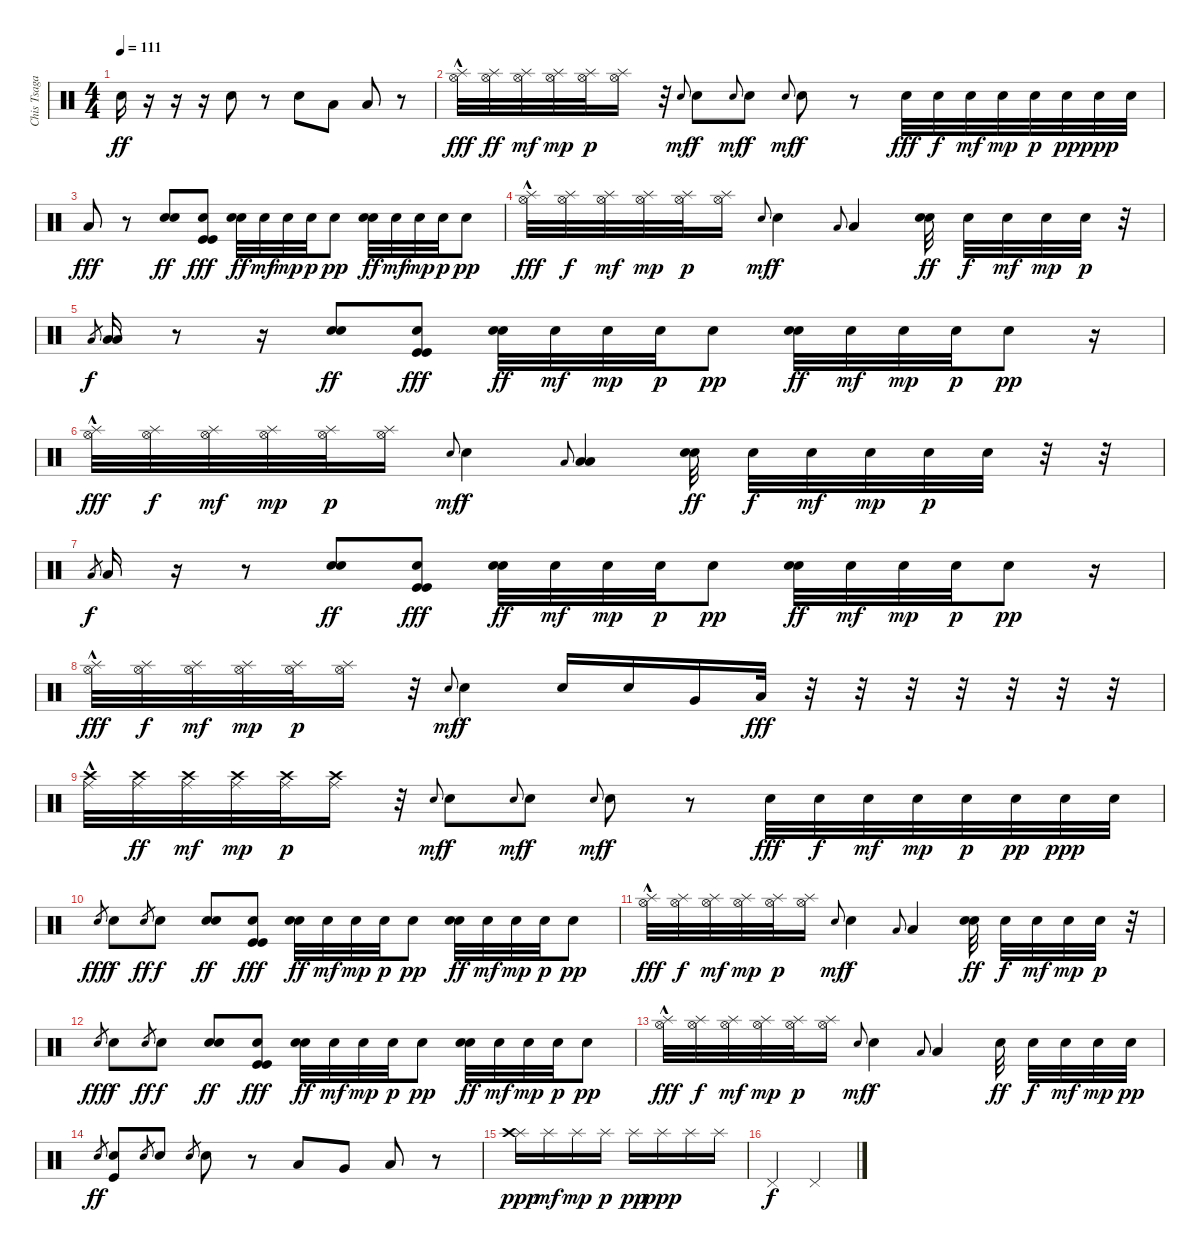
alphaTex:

\track ("Chis Tsagakis" "Chis Tsaga") {instrument percussion}
\staff {score}
\articulation defaults
\ts (4 4)
\tempo 111
\clef neutral
\ks c "Snare (hit) 2".16{dy ff}
r.16 r.16 r.16 "Snare (hit) 2".8 r.8 "Snare (hit) 2".8 "Low Tom (hit)".8 "Low Floor Tom (hit)".8 r.8 |
("Splash (hit)"{hac} "Hi-Hat (open)").32{dy fff} ("Splash (hit)" "Hi-Hat (open)").32{dy ff} ("Splash (hit)" "Hi-Hat (open)").32{dy mf} ("Splash (hit)" "Hi-Hat (open)").32{dy mp} ("Splash (hit)" "Hi-Hat (open)").32{dy p} ("Splash (hit)" "Hi-Hat (open)").16 r.32 "Snare (hit) 2".8{gr onbeat dy mf} "Snare (hit) 2".8{dy f} "Snare (hit) 2".8{gr onbeat dy mf} "Snare (hit) 2".8{dy f} "Snare (hit) 2".8{gr onbeat dy mf} "Snare (hit) 2".8{dy f} r.8 "Electric Snare (hit)".32{dy fff} "Electric Snare (hit)".32{dy f} "Electric Snare (hit)".32{dy mf} "Electric Snare (hit)".32{dy mp} "Electric Snare (hit)".32{dy p} "Electric Snare (hit)".32{dy pp} "Electric Snare (hit)".32{dy ppp} "Electric Snare (hit)".32 |
"Low Tom (hit)".8{dy fff} r.8 ("Snare (hit) 2" "Snare (hit) 2").8{dy ff} ("Snare (hit) 2" "Kick (hit)" "Kick (hit)").8{dy fff} ("Snare (hit) 2" "Snare (hit) 2").32{dy ff} "Snare (hit) 2".32{dy mf} "Snare (hit) 2".32{dy mp} "Snare (hit) 2".32{dy p} "Snare (hit) 2".8{dy pp} ("Snare (hit) 2" "Snare (hit) 2").32{dy ff} "Snare (hit) 2".32{dy mf} "Snare (hit) 2".32{dy mp} "Snare (hit) 2".32{dy p} "Snare (hit) 2".8{dy pp} |
("Splash (hit)"{hac} "Hi-Hat (open)").32{dy fff} ("Splash (hit)" "Hi-Hat (open)").32{dy f} ("Splash (hit)" "Hi-Hat (open)").32{dy mf} ("Splash (hit)" "Hi-Hat (open)").32{dy mp} ("Splash (hit)" "Hi-Hat (open)").32{dy p} ("Splash (hit)" "Hi-Hat (open)").16 "Snare (hit) 2".8{gr onbeat dy mf} "Snare (hit) 2".4{dy f} "Low Tom (hit)".8{gr onbeat} "Low Tom (hit)".4 ("Electric Snare (hit)" "Electric Snare (hit)").32{dy ff} "Electric Snare (hit)".32{dy f} "Electric Snare (hit)".32{dy mf} "Electric Snare (hit)".32{dy mp} "Electric Snare (hit)".32{dy p} r.32 |
"Low Tom (hit)".8{gr dy f} ("Low Tom (hit)" "Low Tom (hit)").16 r.8 r.16 ("Snare (hit) 2" "Snare (hit) 2").8{dy ff} ("Snare (hit) 2" "Kick (hit)" "Kick (hit)").8{dy fff} ("Snare (hit) 2" "Snare (hit) 2").32{dy ff} "Snare (hit) 2".32{dy mf} "Snare (hit) 2".32{dy mp} "Snare (hit) 2".32{dy p} "Snare (hit) 2".8{dy pp} ("Snare (hit) 2" "Snare (hit) 2").32{dy ff} "Snare (hit) 2".32{dy mf} "Snare (hit) 2".32{dy mp} "Snare (hit) 2".32{dy p} "Snare (hit) 2".8{dy pp} r.16 |
("Splash (hit)"{hac} "Hi-Hat (open)").32{dy fff} ("Splash (hit)" "Hi-Hat (open)").32{dy f} ("Splash (hit)" "Hi-Hat (open)").32{dy mf} ("Splash (hit)" "Hi-Hat (open)").32{dy mp} ("Splash (hit)" "Hi-Hat (open)").32{dy p} ("Splash (hit)" "Hi-Hat (open)").16 "Snare (hit) 2".8{gr onbeat dy mf} "Snare (hit) 2".4{dy f} "Low Floor Tom (hit)".8{gr onbeat} ("Low Floor Tom (hit)" "Low Floor Tom (hit)").4 ("Electric Snare (hit)" "Electric Snare (hit)").32{dy ff} "Electric Snare (hit)".32{dy f} "Electric Snare (hit)".32{dy mf} "Electric Snare (hit)".32{dy mp} "Electric Snare (hit)".32{dy p} "Electric Snare (hit)".32 r.32 r.32 |
"Low Tom (hit)".8{gr dy f} "Low Tom (hit)".16 r.16 r.8 ("Snare (hit) 2" "Snare (hit) 2").8{dy ff} ("Snare (hit) 2" "Kick (hit)" "Kick (hit)").8{dy fff} ("Snare (hit) 2" "Snare (hit) 2").32{dy ff} "Snare (hit) 2".32{dy mf} "Snare (hit) 2".32{dy mp} "Snare (hit) 2".32{dy p} "Snare (hit) 2".8{dy pp} ("Snare (hit) 2" "Snare (hit) 2").32{dy ff} "Snare (hit) 2".32{dy mf} "Snare (hit) 2".32{dy mp} "Snare (hit) 2".32{dy p} "Snare (hit) 2".8{dy pp} r.16 |
("Splash (hit)"{hac} "Hi-Hat (open)").32{dy fff} ("Splash (hit)" "Hi-Hat (open)").32{dy f} ("Splash (hit)" "Hi-Hat (open)").32{dy mf} ("Splash (hit)" "Hi-Hat (open)").32{dy mp} ("Splash (hit)" "Hi-Hat (open)").32{dy p} ("Splash (hit)" "Hi-Hat (open)").16 r.32 "Snare (hit) 2".8{gr onbeat dy mf} "Snare (hit) 2".4{dy f} "Electric Snare (hit)".16 "Electric Snare (hit)".16 "Very Low Tom (hit)".16 "Low Floor Tom (hit)".32{dy fff} r.32 r.32 r.32 r.32 r.32 r.32 r.32 |
("Ride (middle)"{hac} "Crash high (hit)").32 ("Ride (middle)" "Crash high (hit)").32{dy ff} ("Ride (middle)" "Crash high (hit)").32{dy mf} ("Ride (middle)" "Crash high (hit)").32{dy mp} ("Ride (middle)" "Crash high (hit)").32{dy p} ("Ride (middle)" "Crash high (hit)").16 r.32 "Snare (hit) 2".8{gr onbeat dy mf} "Snare (hit) 2".8{dy f} "Snare (hit) 2".8{gr onbeat dy mf} "Snare (hit) 2".8{dy f} "Snare (hit) 2".8{gr onbeat dy mf} "Snare (hit) 2".8{dy f} r.8 "Electric Snare (hit)".32{dy fff} "Electric Snare (hit)".32{dy f} "Electric Snare (hit)".32{dy mf} "Electric Snare (hit)".32{dy mp} "Electric Snare (hit)".32{dy p} "Electric Snare (hit)".32{dy pp} "Electric Snare (hit)".32{dy ppp} "Electric Snare (hit)".32 |
"Snare (hit) 2".8{gr dy fff} "Snare (hit) 2".8{dy f} "Snare (hit) 2".8{gr dy ff} "Snare (hit) 2".8{dy f} ("Snare (hit) 2" "Snare (hit) 2").8{dy ff} ("Snare (hit) 2" "Kick (hit)" "Kick (hit)").8{dy fff} ("Snare (hit) 2" "Snare (hit) 2").32{dy ff} "Snare (hit) 2".32{dy mf} "Snare (hit) 2".32{dy mp} "Snare (hit) 2".32{dy p} "Snare (hit) 2".8{dy pp} ("Snare (hit) 2" "Snare (hit) 2").32{dy ff} "Snare (hit) 2".32{dy mf} "Snare (hit) 2".32{dy mp} "Snare (hit) 2".32{dy p} "Snare (hit) 2".8{dy pp} |
("Splash (hit)"{hac} "Hi-Hat (open)").32{dy fff} ("Splash (hit)" "Hi-Hat (open)").32{dy f} ("Splash (hit)" "Hi-Hat (open)").32{dy mf} ("Splash (hit)" "Hi-Hat (open)").32{dy mp} ("Splash (hit)" "Hi-Hat (open)").32{dy p} ("Splash (hit)" "Hi-Hat (open)").16 "Snare (hit) 2".8{gr onbeat dy mf} "Snare (hit) 2".4{dy f} "Low Tom (hit)".8{gr onbeat} "Low Tom (hit)".4 ("Electric Snare (hit)" "Electric Snare (hit)").32{dy ff} "Electric Snare (hit)".32{dy f} "Electric Snare (hit)".32{dy mf} "Electric Snare (hit)".32{dy mp} "Electric Snare (hit)".32{dy p} r.32 |
"Snare (hit) 2".8{gr dy fff} "Snare (hit) 2".8{dy f} "Snare (hit) 2".8{gr dy ff} "Snare (hit) 2".8{dy f} ("Snare (hit) 2" "Snare (hit) 2").8{dy ff} ("Snare (hit) 2" "Kick (hit)" "Kick (hit)").8{dy fff} ("Snare (hit) 2" "Snare (hit) 2").32{dy ff} "Snare (hit) 2".32{dy mf} "Snare (hit) 2".32{dy mp} "Snare (hit) 2".32{dy p} "Snare (hit) 2".8{dy pp} ("Snare (hit) 2" "Snare (hit) 2").32{dy ff} "Snare (hit) 2".32{dy mf} "Snare (hit) 2".32{dy mp} "Snare (hit) 2".32{dy p} "Snare (hit) 2".8{dy pp} |
("Splash (hit)"{hac} "Hi-Hat (open)").32{dy fff} ("Splash (hit)" "Hi-Hat (open)").32{dy f} ("Splash (hit)" "Hi-Hat (open)").32{dy mf} ("Splash (hit)" "Hi-Hat (open)").32{dy mp} ("Splash (hit)" "Hi-Hat (open)").32{dy p} ("Splash (hit)" "Hi-Hat (open)").16 "Snare (hit) 2".8{gr onbeat dy mf} "Snare (hit) 2".4{dy f} "Low Tom (hit)".8{gr onbeat} "Low Tom (hit)".4 "Electric Snare (hit)".32{dy ff} "Electric Snare (hit)".32{dy f} "Electric Snare (hit)".32{dy mf} "Electric Snare (hit)".32{dy mp} "Electric Snare (hit)".32{dy pp} |
"Snare (hit) 2".8{gr dy ff} ("Snare (hit) 2" "Kick (hit)").8 "Snare (hit) 2".8{gr} "Snare (hit) 2".8 "Snare (hit) 2".8{gr} "Snare (hit) 2".8 r.8 "Low Tom (hit)".8 "Very Low Tom (hit)".8 "Low Floor Tom (hit)".8 r.8 |
("Splash (hit)" "Crash high (hit)").16{dy ppp} "Splash (hit)".16{dy mf} "Splash (hit)".16{dy mp} "Splash (hit)".16{dy p} "Splash (hit)".16{dy pp} "Splash (hit)".16{dy ppp} "Splash (hit)".16 "Splash (hit)".16 |
"Pedal Hi-Hat (hit)".2{dy f} "Pedal Hi-Hat (hit)".2
